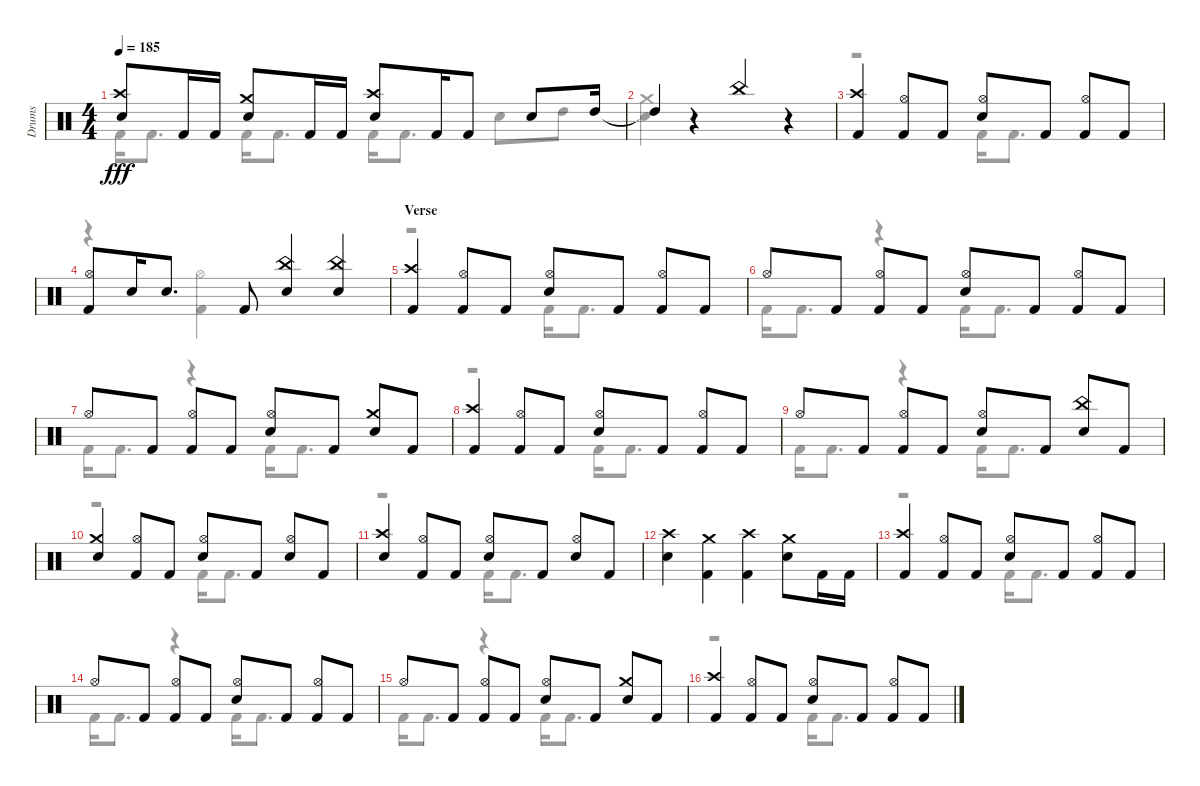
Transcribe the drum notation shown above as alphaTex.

\track ("Drums" "Drums") {instrument percussion}
\staff {score}
\articulation defaults
\voice
\ts (4 4)
\tempo 185
\clef neutral
\ks aminor
("Snare (hit) 2" "Crash high (hit)").8{dy fff} "Kick (hit) 2".16 "Kick (hit) 2".16 ("Snare (hit) 2" "Crash medium (hit)").8 "Kick (hit) 2".16 "Kick (hit) 2".16 ("Snare (hit) 2" "Crash high (hit)").8 "Kick (hit) 2".16 "Kick (hit) 2".8 "Snare (hit) 2".8 "High Tom (hit)".16 |
"High Tom (hit)"{t}.4 r.4 "China (hit)".4 r.4 |
("Crash high (hit)" "Kick (hit) 2").4 ("Hi-Hat (open)" "Kick (hit) 2").8 "Kick (hit) 2".8 ("Hi-Hat (open)" "Snare (hit) 2").8 "Kick (hit) 2".8 ("Hi-Hat (open)" "Kick (hit) 2").8 "Kick (hit) 2".8 |
("Hi-Hat (open)" "Kick (hit) 2").8 "Snare (hit) 2".16 "Snare (hit) 2".8{d} "Kick (hit) 2".8 ("China (hit)" "Snare (hit) 2").4 ("Snare (hit) 2" "China (hit)").4 |
\section ("" "Verse")
("Kick (hit) 2" "Crash high (hit)").4 ("Hi-Hat (open)" "Kick (hit) 2").8 "Kick (hit) 2".8 ("Hi-Hat (open)" "Snare (hit) 2").8 "Kick (hit) 2".8 ("Hi-Hat (open)" "Kick (hit) 2").8 "Kick (hit) 2".8 |
"Hi-Hat (open)".8 "Kick (hit) 2".8 ("Hi-Hat (open)" "Kick (hit) 2").8 "Kick (hit) 2".8 ("Hi-Hat (open)" "Snare (hit) 2").8 "Kick (hit) 2".8 ("Kick (hit) 2" "Hi-Hat (open)").8 "Kick (hit) 2".8 |
"Hi-Hat (open)".8 "Kick (hit) 2".8 ("Kick (hit) 2" "Hi-Hat (open)").8 "Kick (hit) 2".8 ("Hi-Hat (open)" "Snare (hit) 2").8 "Kick (hit) 2".8 ("Snare (hit) 2" "Crash medium (hit)").8 "Kick (hit) 2".8 |
("Crash high (hit)" "Kick (hit) 2").4 ("Kick (hit) 2" "Hi-Hat (open)").8 "Kick (hit) 2".8 ("Hi-Hat (open)" "Snare (hit) 2").8 "Kick (hit) 2".8 ("Kick (hit) 2" "Hi-Hat (open)").8 "Kick (hit) 2".8 |
"Hi-Hat (open)".8 "Kick (hit) 2".8 ("Hi-Hat (open)" "Kick (hit) 2").8 "Kick (hit) 2".8 ("Hi-Hat (open)" "Snare (hit) 2").8 "Kick (hit) 2".8 ("Snare (hit) 2" "China (hit)").8 "Kick (hit) 2".8 |
("Crash medium (hit)" "Snare (hit) 2").4 ("Kick (hit) 2" "Hi-Hat (open)").8 "Kick (hit) 2".8 ("Snare (hit) 2" "Hi-Hat (open)").8 "Kick (hit) 2".8 ("Snare (hit) 2" "Hi-Hat (open)").8 "Kick (hit) 2".8 |
("Snare (hit) 2" "Crash high (hit)").4 ("Hi-Hat (open)" "Kick (hit) 2").8 "Kick (hit) 2".8 ("Hi-Hat (open)" "Snare (hit) 2").8 "Kick (hit) 2".8 ("Snare (hit) 2" "Hi-Hat (open)").8 "Kick (hit) 2".8 |
("Snare (hit) 2" "Crash high (hit)").4 ("Crash medium (hit)" "Kick (hit) 2").4 ("Crash high (hit)" "Kick (hit) 2").4 ("Snare (hit) 2" "Crash medium (hit)").8 "Kick (hit) 2".16 "Kick (hit) 2".16 |
("Crash high (hit)" "Kick (hit) 2").4 ("Kick (hit) 2" "Hi-Hat (open)").8 "Kick (hit) 2".8 ("Snare (hit) 2" "Hi-Hat (open)").8 "Kick (hit) 2".8 ("Hi-Hat (open)" "Kick (hit) 2").8 "Kick (hit) 2".8 |
"Hi-Hat (open)".8 "Kick (hit) 2".8 ("Hi-Hat (open)" "Kick (hit) 2").8 "Kick (hit) 2".8 ("Snare (hit) 2" "Hi-Hat (open)").8 "Kick (hit) 2".8 ("Kick (hit) 2" "Hi-Hat (open)").8 "Kick (hit) 2".8 |
"Hi-Hat (open)".8 "Kick (hit) 2".8 ("Kick (hit) 2" "Hi-Hat (open)").8 "Kick (hit) 2".8 ("Hi-Hat (open)" "Snare (hit) 2").8 "Kick (hit) 2".8 ("Snare (hit) 2" "Crash medium (hit)").8 "Kick (hit) 2".8 |
("Crash high (hit)" "Kick (hit) 2").4 ("Hi-Hat (open)" "Kick (hit) 2").8 "Kick (hit) 2".8 ("Hi-Hat (open)" "Snare (hit) 2").8 "Kick (hit) 2".8 ("Kick (hit) 2" "Hi-Hat (open)").8 "Kick (hit) 2".8
\voice
\clef neutral
\ottava regular
\simile none
\ks aminor "Kick (hit) 2".16{dy fff} "Kick (hit) 2".8{d} "Kick (hit) 2".16 "Kick (hit) 2".8{d} "Kick (hit) 2".16 "Kick (hit) 2".8{d} "Snare (hit) 2".8 "High Tom (hit)".8
|
("Snare (hit) 2" "Crash medium (hit)").4 |
r.2 "Kick (hit) 2".16 "Kick (hit) 2".8{d} |
r.4 ("Hi-Hat (open)" "Kick (hit) 2").4 |
r.2 "Kick (hit) 2".16 "Kick (hit) 2".8{d} |
"Kick (hit) 2".16 "Kick (hit) 2".8{d} r.4 "Kick (hit) 2".16 "Kick (hit) 2".8{d} |
"Kick (hit) 2".16 "Kick (hit) 2".8{d} r.4 "Kick (hit) 2".16 "Kick (hit) 2".8{d} |
r.2 "Kick (hit) 2".16 "Kick (hit) 2".8{d} |
"Kick (hit) 2".16 "Kick (hit) 2".8{d} r.4 "Kick (hit) 2".16 "Kick (hit) 2".8{d} |
r.2 "Kick (hit) 2".16 "Kick (hit) 2".8{d} |
r.2 "Kick (hit) 2".16 "Kick (hit) 2".8{d} |
|
r.2 "Kick (hit) 2".16 "Kick (hit) 2".8{d} |
"Kick (hit) 2".16 "Kick (hit) 2".8{d} r.4 "Kick (hit) 2".16 "Kick (hit) 2".8{d} |
"Kick (hit) 2".16 "Kick (hit) 2".8{d} r.4 "Kick (hit) 2".16 "Kick (hit) 2".8{d} |
r.2 "Kick (hit) 2".16 "Kick (hit) 2".8{d}
